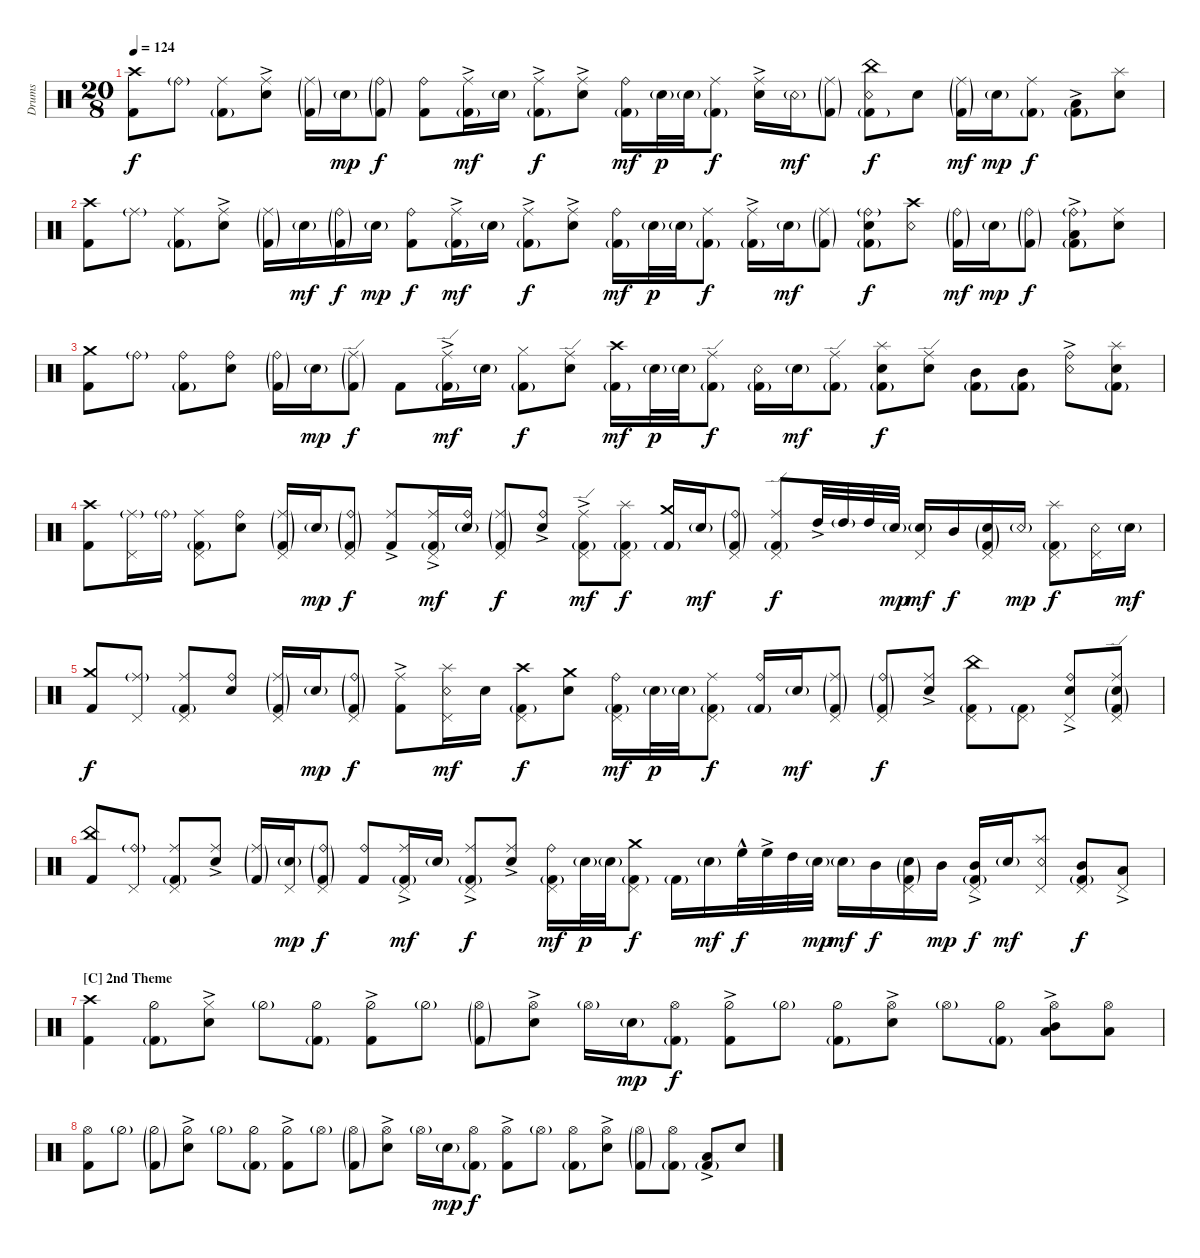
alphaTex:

\bracketExtendMode groupsimilarinstruments
\otherSystemsTrackNameOrientation horizontal
\track ("Drumkit" "Drums") {instrument percussion}
\staff {score}
\articulation defaults
\ts (20 8)
\tempo 124
\clef neutral
\ks c
("Kick (hit) 2" "Crash high (hit)").8{dy f beam Down} "Ride (bell)"{g}.8{beam Down} ("Ride (middle)" "Kick (hit) 2"{g}).8{beam Down} ("Ride (middle)"{ac} "Snare (hit) 2").8{beam Down} ("Ride (middle)"{g} "Kick (hit) 2"{g}).16{beam Down} "Snare (hit) 2"{g}.16{dy mp beam Down} ("Ride (bell)"{g} "Kick (hit) 2"{g}).8{dy f beam Down} ("Ride (bell)" "Kick (hit) 2").8{beam Down} ("Ride (middle)"{ac} "Kick (hit) 2"{g}).16{dy mf beam Down} "Snare (hit) 2"{g}.16{beam Down} ("Ride (middle)"{ac} "Kick (hit) 2"{g}).8{dy f beam Down} ("Ride (middle)"{ac} "Snare (hit) 2").8{beam Down} ("Ride (bell)" "Kick (hit) 2"{g}).16{dy mf beam Down} "Snare (hit) 2"{g}.32{dy p beam Down} "Snare (hit) 2"{g}.32{beam Down} ("Ride (middle)" "Kick (hit) 2"{g}).8{dy f beam Down} ("Ride (middle)"{ac} "Snare (hit) 2").16{beam Down} "Snare (rim shot)"{g}.16{dy mf beam Down} ("Ride (middle)"{g} "Kick (hit) 2"{g}).8{beam Down} ("Kick (hit) 2"{g} "Snare (rim shot)" "China (hit)").8{dy f beam Down} "Snare (hit) 2".8{beam Down} ("Ride (middle)"{g} "Kick (hit) 2"{g}).16{dy mf beam Down} "Snare (hit) 2"{g}.16{dy mp beam Down} ("Ride (middle)" "Kick (hit) 2"{g}).8{dy f beam Down} ("Low Tom (hit)"{ac} "Kick (hit) 2"{g}).8{beam Down} ("Snare (hit) 2" "Splash (hit)").8{beam Down} |
("Kick (hit) 2" "Crash high (hit)").8{beam Down} "Ride (middle)"{g}.8{beam Down} ("Ride (middle)" "Kick (hit) 2"{g}).8{beam Down} ("Ride (middle)"{ac} "Snare (hit) 2").8{beam Down} ("Ride (middle)"{g} "Kick (hit) 2"{g}).16{beam Down} "Snare (hit) 2"{g}.16{dy mf beam Down} ("Ride (bell)"{g} "Kick (hit) 2"{g}).16{dy f beam Down} "Snare (hit) 2"{g}.16{dy mp beam Down} ("Ride (bell)" "Kick (hit) 2").8{dy f beam Down} ("Ride (middle)"{ac} "Kick (hit) 2"{g}).16{dy mf beam Down} "Snare (hit) 2"{g}.16{beam Down} ("Ride (middle)"{ac} "Kick (hit) 2"{g}).8{dy f beam Down} ("Ride (middle)"{ac} "Snare (hit) 2").8{beam Down} ("Ride (bell)" "Kick (hit) 2"{g}).16{dy mf beam Down} "Snare (hit) 2"{g}.32{dy p beam Down} "Snare (hit) 2"{g}.32{beam Down} ("Ride (middle)" "Kick (hit) 2"{g}).8{dy f beam Down} ("Ride (middle)"{ac} "Kick (hit) 2"{g}).16{beam Down} "Snare (hit) 2"{g}.16{dy mf beam Down} ("Ride (middle)"{g} "Kick (hit) 2"{g}).8{beam Down} ("Ride (bell)"{g} "Kick (hit) 2"{g} "Snare (hit) 2").8{dy f beam Down} ("Snare (rim shot)" "Crash high (hit)").8{beam Down} ("Ride (bell)"{g} "Kick (hit) 2"{g}).16{dy mf beam Down} "Snare (hit) 2"{g}.16{dy mp beam Down} ("Ride (bell)"{g} "Kick (hit) 2"{g}).8{dy f beam Down} ("Low Tom (hit)"{ac} "Kick (hit) 2"{g} "Ride (bell)"{g}).8{beam Down} ("Snare (hit) 2" "Ride (middle)").8{beam Down} |
("Kick (hit) 2" "Crash medium (hit)").8{beam Down} "Ride (bell)"{g}.8{beam Down} ("Ride (bell)" "Kick (hit) 2"{g}).8{beam Down} ("Ride (bell)" "Snare (hit) 2").8{beam Down} ("Ride (bell)"{g} "Kick (hit) 2"{g}).16{beam Down} "Snare (hit) 2"{g}.16{dy mp beam Down} ("Ride (edge)"{g} "Kick (hit) 2"{g}).8{dy f beam Down} "Kick (hit) 2".8{beam Down} ("Ride (edge)"{ac} "Kick (hit) 2"{g}).16{dy mf beam Down} "Snare (hit) 2"{g}.16{beam Down} ("Kick (hit) 2"{g} "Hi-Hat (closed)").8{dy f beam Down} ("Snare (hit) 2" "Ride (edge)").8{beam Down} ("Kick (hit) 2"{g} "Crash high (hit)").16{dy mf beam Down} "Snare (hit) 2"{g}.32{dy p beam Down} "Snare (hit) 2"{g}.32{beam Down} ("Ride (edge)" "Kick (hit) 2"{g}).8{dy f beam Down} ("Kick (hit) 2"{g} "Snare (rim shot)").16{beam Down} "Snare (hit) 2"{g}.16{dy mf beam Down} ("Kick (hit) 2"{g} "Ride (edge)").8{beam Down} ("Kick (hit) 2"{g} "Snare (hit) 2" "Splash (hit)").8{dy f beam Down} ("Snare (hit) 2" "Ride (edge)").8{beam Down} ("Kick (hit) 2"{g} "Mid Tom (hit)").8{beam Down} ("Kick (hit) 2"{g} "Mid Tom (hit)").8{beam Down} ("Ride (bell)"{ac} "Snare (rim shot)").8{beam Down} ("Snare (hit) 2" "Kick (hit) 2"{g} "Splash (hit)").8{beam Down} |
("Kick (hit) 2" "Crash high (hit)").8{beam Down} ("Ride (middle)"{g} "Pedal Hi-Hat (hit)").16{beam Down} "Ride (bell)"{g}.16{beam Down} ("Ride (middle)" "Kick (hit) 2"{g} "Pedal Hi-Hat (hit)").8{beam Down} ("Ride (bell)" "Snare (hit) 2").8{beam Up} ("Ride (middle)"{g} "Kick (hit) 2"{g} "Pedal Hi-Hat (hit)").16{beam Up} "Snare (hit) 2"{g}.16{dy mp beam Up} ("Ride (bell)"{g} "Kick (hit) 2"{g} "Pedal Hi-Hat (hit)").8{dy f beam Up} ("Ride (middle)"{ac} "Kick (hit) 2").8{beam Up} ("Ride (middle)"{ac} "Kick (hit) 2"{g} "Pedal Hi-Hat (hit)").16{dy mf beam Up} ("Snare (hit) 2"{g} "Ride (bell)").16{beam Up} ("Ride (middle)"{g} "Kick (hit) 2"{g} "Pedal Hi-Hat (hit)").8{dy f beam Up} ("Ride (bell)"{ac} "Snare (hit) 2").8{beam Down} ("Kick (hit) 2"{g} "Ride (edge)"{ac} "Pedal Hi-Hat (hit)").8{dy mf beam Down} ("Kick (hit) 2"{g} "Splash (hit)" "Pedal Hi-Hat (hit)").8{dy f beam Down} ("Kick (hit) 2"{g} "Crash medium (hit)").16{beam Up} "Snare (hit) 2"{g}.16{dy mf beam Up} ("Ride (bell)"{g} "Kick (hit) 2"{g} "Pedal Hi-Hat (hit)").8{beam Up} ("Kick (hit) 2"{g} "Ride (edge)" "Pedal Hi-Hat (hit)").8{dy f beam Up} "High Tom (hit)"{ac}.32{beam Up} "High Tom (hit)"{g}.32{beam Up} "High Tom (hit)".32{beam Up} "Snare (hit) 2"{g}.32{dy mp beam Up} ("Snare (hit) 2"{g} "Pedal Hi-Hat (hit)").16{dy mf beam Up} "Mid Tom (hit)".16{dy f beam Up} ("Kick (hit) 2"{g} "Snare (hit) 2"{g} "Pedal Hi-Hat (hit)").16{beam Up} "Snare (rim shot)"{g}.16{dy mp beam Up} ("Kick (hit) 2"{g} "Splash (hit)" "Pedal Hi-Hat (hit)").8{dy f beam Down} ("Snare (rim shot)" "Pedal Hi-Hat (hit)").16{beam Down} "Snare (hit) 2"{g}.16{dy mf beam Down} |
("Kick (hit) 2" "Crash medium (hit)").8{dy f beam Up} ("Ride (middle)"{g} "Pedal Hi-Hat (hit)").8{beam Up} ("Ride (middle)" "Kick (hit) 2"{g} "Pedal Hi-Hat (hit)").8{beam Up} ("Ride (bell)" "Snare (hit) 2").8{beam Up} ("Ride (middle)"{g} "Kick (hit) 2"{g} "Pedal Hi-Hat (hit)").16{beam Up} "Snare (hit) 2"{g}.16{dy mp beam Up} ("Ride (bell)"{g} "Kick (hit) 2"{g} "Pedal Hi-Hat (hit)").8{dy f beam Up} ("Ride (middle)"{ac} "Kick (hit) 2").8{beam Down} ("Splash (hit)" "Snare (rim shot)" "Pedal Hi-Hat (hit)").16{dy mf beam Down} "Snare (hit) 2".16{beam Down} ("Kick (hit) 2"{g} "Crash high (hit)" "Pedal Hi-Hat (hit)").8{dy f beam Down} ("Snare (hit) 2" "Crash medium (hit)").8{beam Down} ("Ride (bell)" "Kick (hit) 2"{g} "Pedal Hi-Hat (hit)").16{dy mf beam Down} "Snare (hit) 2"{g}.32{dy p beam Down} "Snare (hit) 2"{g}.32{beam Down} ("Ride (middle)" "Kick (hit) 2"{g} "Pedal Hi-Hat (hit)").8{dy f beam Down} ("Ride (bell)" "Kick (hit) 2"{g}).16{beam Up} "Snare (hit) 2"{g}.16{dy mf beam Up} ("Ride (middle)"{g} "Kick (hit) 2"{g} "Pedal Hi-Hat (hit)").8{beam Up} ("Ride (bell)"{g} "Kick (hit) 2"{g} "Pedal Hi-Hat (hit)").8{dy f beam Up} ("Ride (middle)"{ac} "Snare (hit) 2").8{beam Down} ("Kick (hit) 2"{g} "Pedal Hi-Hat (hit)" "China (hit)").8{beam Down} ("Kick (hit) 2"{g} "Pedal Hi-Hat (hit)").8{beam Down} ("Ride (bell)"{ac} "Snare (hit) 2" "Pedal Hi-Hat (hit)").8{beam Up} ("Snare (hit) 2"{g} "Kick (hit) 2"{g} "Pedal Hi-Hat (hit)" "Ride (edge)").8{beam Up} |
("Kick (hit) 2" "China (hit)").8{beam Up} ("Ride (bell)"{g} "Pedal Hi-Hat (hit)").8{beam Up} ("Ride (middle)" "Kick (hit) 2"{g} "Pedal Hi-Hat (hit)").8{beam Up} ("Ride (middle)"{ac} "Snare (hit) 2").8{beam Up} ("Ride (middle)"{g} "Kick (hit) 2"{g}).16{beam Up} ("Snare (hit) 2"{g} "Pedal Hi-Hat (hit)").16{dy mp beam Up} ("Ride (bell)"{g} "Kick (hit) 2"{g} "Pedal Hi-Hat (hit)").8{dy f beam Up} ("Ride (bell)" "Kick (hit) 2").8{beam Up} ("Ride (middle)"{ac} "Kick (hit) 2"{g} "Pedal Hi-Hat (hit)").16{dy mf beam Up} "Snare (hit) 2"{g}.16{beam Up} ("Ride (middle)"{ac} "Kick (hit) 2"{g} "Pedal Hi-Hat (hit)").8{dy f beam Up} ("Ride (middle)"{ac} "Snare (hit) 2").8{beam Down} ("Ride (bell)" "Kick (hit) 2"{g} "Pedal Hi-Hat (hit)").16{dy mf beam Down} "Snare (hit) 2"{g}.32{dy p beam Down} "Snare (hit) 2"{g}.32{beam Down} ("Kick (hit) 2"{g} "Pedal Hi-Hat (hit)" "Crash medium (hit)").8{dy f beam Down} "Kick (hit) 2"{g}.16{beam Down} "Snare (hit) 2"{g}.16{dy mf beam Down} "High Floor Tom (hit)"{hac}.32{dy f beam Down} "High Floor Tom (hit)"{ac}.32{beam Down} "High Tom (hit)".32{beam Down} "Snare (hit) 2"{g}.32{dy mp beam Down} "Snare (hit) 2"{g}.16{dy mf beam Down} "Mid Tom (hit)".16{dy f beam Down} ("Kick (hit) 2"{g} "Snare (hit) 2"{g} "Pedal Hi-Hat (hit)").16{beam Up} "Mid Tom (hit)".16{dy mp beam Up} ("Kick (hit) 2"{g} "Pedal Hi-Hat (hit)" "Mid Tom (hit)"{ac}).16{dy f beam Up} "Snare (hit) 2"{g}.16{dy mf beam Up} ("Snare (rim shot)" "Pedal Hi-Hat (hit)" "Splash (hit)").8{beam Up} ("Kick (hit) 2"{g} "Pedal Hi-Hat (hit)" "Mid Tom (hit)").8{dy f beam Up} ("Pedal Hi-Hat (hit)" "Low Tom (hit)"{ac}).8{beam Up} |
\section ("C" "2nd Theme")
("Kick (hit) 2" "Crash high (hit)").4{beam Down} ("Kick (hit) 2"{g} "Hi-Hat (half)").8{beam Down} ("Snare (hit) 2" "Hi-Hat (closed)"{ac}).8{beam Down} "Hi-Hat (half)"{g}.8{beam Down} ("Kick (hit) 2"{g} "Hi-Hat (half)").8{beam Down} ("Kick (hit) 2" "Hi-Hat (half)"{ac}).8{beam Down} "Hi-Hat (half)"{g}.8{beam Down} ("Kick (hit) 2"{g} "Hi-Hat (open)"{g}).8{beam Down} ("Snare (hit) 2" "Hi-Hat (open)"{ac}).8{beam Down} "Hi-Hat (open)"{g}.16{beam Down} "Snare (hit) 2"{g}.16{dy mp beam Down} ("Kick (hit) 2"{g} "Hi-Hat (open)").8{dy f beam Down} ("Kick (hit) 2" "Hi-Hat (half)"{ac}).8{beam Down} "Hi-Hat (half)"{g}.8{beam Down} ("Kick (hit) 2"{g} "Hi-Hat (half)").8{beam Down} ("Snare (hit) 2" "Hi-Hat (open)"{ac}).8{beam Down} "Hi-Hat (open)"{g}.8{beam Down} ("Kick (hit) 2"{g} "Hi-Hat (half)").8{beam Down} ("Hi-Hat (open)"{ac} "Low Tom (hit)" "Mid Tom (hit)").8{beam Down} ("Hi-Hat (open)" "Low Tom (hit)").8{beam Down} |
("Kick (hit) 2" "Hi-Hat (open)").8{beam Down} "Hi-Hat (half)"{g}.8{beam Down} ("Kick (hit) 2"{g} "Hi-Hat (half)"{g}).8{beam Down} ("Snare (hit) 2" "Hi-Hat (half)"{ac}).8{beam Down} "Hi-Hat (half)"{g}.8{beam Down} ("Kick (hit) 2"{g} "Hi-Hat (half)").8{beam Down} ("Kick (hit) 2" "Hi-Hat (half)"{ac}).8{beam Down} "Hi-Hat (open)"{g}.8{beam Down} ("Kick (hit) 2"{g} "Hi-Hat (open)"{g}).8{beam Down} ("Snare (hit) 2" "Hi-Hat (open)"{ac}).8{beam Down} "Hi-Hat (open)"{g}.16{beam Down} "Snare (hit) 2"{g}.16{dy mp beam Down} ("Kick (hit) 2"{g} "Hi-Hat (open)").8{dy f beam Down} ("Kick (hit) 2" "Hi-Hat (open)"{ac}).8{beam Down} "Hi-Hat (open)"{g}.8{beam Down} ("Kick (hit) 2"{g} "Hi-Hat (open)").8{beam Down} ("Snare (hit) 2" "Hi-Hat (open)"{ac}).8{beam Down} ("Kick (hit) 2"{g} "Hi-Hat (open)"{g}).8{beam Down} ("Kick (hit) 2"{g} "Hi-Hat (open)").8{beam Down} ("Low Tom (hit)"{ac} "Kick (hit) 2"{g}).8{beam Up} "Snare (hit) 2".8{beam Up}
